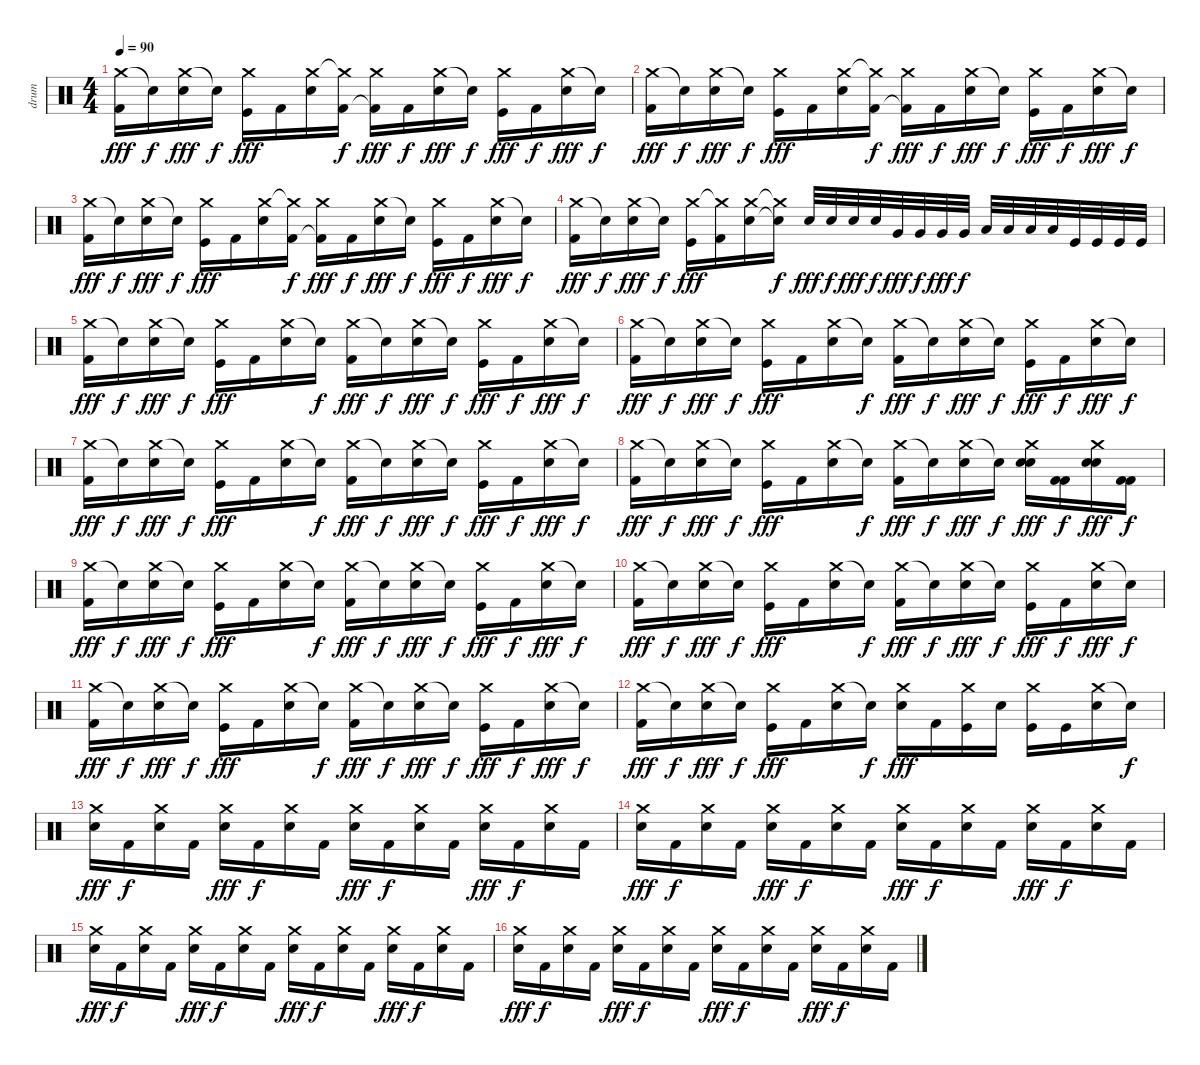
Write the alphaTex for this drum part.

\track ("drum" "drum") {instrument percussion}
\staff {score}
\articulation defaults
\ts (4 4)
\tempo 90
\clef neutral
\ks c
("Crash medium (hit)" "Kick (hit) 2").16{dy fff} "Snare (hit)"{t}.16{dy f} ("Crash medium (hit)" "Electric Snare (hit)").16{dy fff} "Snare (hit)"{t}.16{dy f} ("Crash medium (hit)" "Kick (hit)").16{dy fff} "Kick (hit) 2".16 ("Crash medium (hit)" "Electric Snare (hit)").16 ("Crash medium (hit)"{t} "Kick (hit) 2").16{dy f} ("Crash medium (hit)" "Kick (hit) 2"{t}).16{dy fff} "Kick (hit) 2".16{dy f} ("Crash medium (hit)" "Electric Snare (hit)").16{dy fff} "Snare (hit)"{t}.16{dy f} ("Crash medium (hit)" "Kick (hit)").16{dy fff} "Kick (hit) 2".16{dy f} ("Crash medium (hit)" "Electric Snare (hit)").16{dy fff} "Snare (hit)"{t}.16{dy f} |
("Crash medium (hit)" "Kick (hit) 2").16{dy fff} "Snare (hit)"{t}.16{dy f} ("Crash medium (hit)" "Electric Snare (hit)").16{dy fff} "Snare (hit)"{t}.16{dy f} ("Crash medium (hit)" "Kick (hit)").16{dy fff} "Kick (hit) 2".16 ("Crash medium (hit)" "Electric Snare (hit)").16 ("Crash medium (hit)"{t} "Kick (hit) 2").16{dy f} ("Crash medium (hit)" "Kick (hit) 2"{t}).16{dy fff} "Kick (hit) 2".16{dy f} ("Crash medium (hit)" "Electric Snare (hit)").16{dy fff} "Snare (hit)"{t}.16{dy f} ("Crash medium (hit)" "Kick (hit)").16{dy fff} "Kick (hit) 2".16{dy f} ("Crash medium (hit)" "Electric Snare (hit)").16{dy fff} "Snare (hit)"{t}.16{dy f} |
("Crash medium (hit)" "Kick (hit) 2").16{dy fff} "Snare (hit)"{t}.16{dy f} ("Crash medium (hit)" "Electric Snare (hit)").16{dy fff} "Snare (hit)"{t}.16{dy f} ("Crash medium (hit)" "Kick (hit)").16{dy fff} "Kick (hit) 2".16 ("Crash medium (hit)" "Electric Snare (hit)").16 ("Crash medium (hit)"{t} "Kick (hit) 2").16{dy f} ("Crash medium (hit)" "Kick (hit) 2"{t}).16{dy fff} "Kick (hit) 2".16{dy f} ("Crash medium (hit)" "Electric Snare (hit)").16{dy fff} "Snare (hit)"{t}.16{dy f} ("Crash medium (hit)" "Kick (hit)").16{dy fff} "Kick (hit) 2".16{dy f} ("Crash medium (hit)" "Electric Snare (hit)").16{dy fff} "Snare (hit)"{t}.16{dy f} |
("Crash medium (hit)" "Kick (hit) 2").16{dy fff} "Snare (hit)"{t}.16{dy f} ("Crash medium (hit)" "Electric Snare (hit)").16{dy fff} "Snare (hit)"{t}.16{dy f} ("Crash medium (hit)" "Kick (hit)").16{dy fff} ("Crash medium (hit)"{t} "Kick (hit) 2").16 ("Crash medium (hit)" "Electric Snare (hit)").16 ("Crash medium (hit)"{t} "Snare (hit)"{t}).16{dy f} "Electric Snare (hit)".32{dy fff} "Electric Snare (hit)".32{dy f} "Electric Snare (hit)".32{dy fff} "Electric Snare (hit)".32{dy f} "Very Low Tom (hit)".32{dy fff} "Very Low Tom (hit)".32{dy f} "Very Low Tom (hit)".32{dy fff} "Very Low Tom (hit)".32{dy f} "Low Floor Tom (hit)".32 "Low Floor Tom (hit)".32 "Low Floor Tom (hit)".32 "Low Floor Tom (hit)".32 "Kick (hit)".32 "Kick (hit)".32 "Kick (hit)".32 "Kick (hit)".32 |
("Crash medium (hit)" "Kick (hit) 2").16{dy fff} "Snare (hit)"{t}.16{dy f} ("Crash medium (hit)" "Electric Snare (hit)").16{dy fff} "Snare (hit)"{t}.16{dy f} ("Crash medium (hit)" "Kick (hit)").16{dy fff} "Kick (hit) 2".16 ("Crash medium (hit)" "Electric Snare (hit)").16 "Snare (hit)"{t}.16{dy f} ("Crash medium (hit)" "Kick (hit) 2").16{dy fff} "Snare (hit)"{t}.16{dy f} ("Crash medium (hit)" "Electric Snare (hit)").16{dy fff} "Snare (hit)"{t}.16{dy f} ("Crash medium (hit)" "Kick (hit)").16{dy fff} "Kick (hit) 2".16{dy f} ("Crash medium (hit)" "Electric Snare (hit)").16{dy fff} "Snare (hit)"{t}.16{dy f} |
("Crash medium (hit)" "Kick (hit) 2").16{dy fff} "Snare (hit)"{t}.16{dy f} ("Crash medium (hit)" "Electric Snare (hit)").16{dy fff} "Snare (hit)"{t}.16{dy f} ("Crash medium (hit)" "Kick (hit)").16{dy fff} "Kick (hit) 2".16 ("Crash medium (hit)" "Electric Snare (hit)").16 "Snare (hit)"{t}.16{dy f} ("Crash medium (hit)" "Kick (hit) 2").16{dy fff} "Snare (hit)"{t}.16{dy f} ("Crash medium (hit)" "Electric Snare (hit)").16{dy fff} "Snare (hit)"{t}.16{dy f} ("Crash medium (hit)" "Kick (hit)").16{dy fff} "Kick (hit) 2".16{dy f} ("Crash medium (hit)" "Electric Snare (hit)").16{dy fff} "Snare (hit)"{t}.16{dy f} |
("Crash medium (hit)" "Kick (hit) 2").16{dy fff} "Snare (hit)"{t}.16{dy f} ("Crash medium (hit)" "Electric Snare (hit)").16{dy fff} "Snare (hit)"{t}.16{dy f} ("Crash medium (hit)" "Kick (hit)").16{dy fff} "Kick (hit) 2".16 ("Crash medium (hit)" "Electric Snare (hit)").16 "Snare (hit)"{t}.16{dy f} ("Crash medium (hit)" "Kick (hit) 2").16{dy fff} "Snare (hit)"{t}.16{dy f} ("Crash medium (hit)" "Electric Snare (hit)").16{dy fff} "Snare (hit)"{t}.16{dy f} ("Crash medium (hit)" "Kick (hit)").16{dy fff} "Kick (hit) 2".16{dy f} ("Crash medium (hit)" "Electric Snare (hit)").16{dy fff} "Snare (hit)"{t}.16{dy f} |
("Crash medium (hit)" "Kick (hit) 2").16{dy fff} "Snare (hit)"{t}.16{dy f} ("Crash medium (hit)" "Electric Snare (hit)").16{dy fff} "Snare (hit)"{t}.16{dy f} ("Crash medium (hit)" "Kick (hit)").16{dy fff} "Kick (hit) 2".16 ("Crash medium (hit)" "Electric Snare (hit)").16 "Snare (hit)"{t}.16{dy f} ("Crash medium (hit)" "Kick (hit) 2").16{dy fff} "Snare (hit)"{t}.16{dy f} ("Crash medium (hit)" "Electric Snare (hit)").16{dy fff} "Snare (hit)"{t}.16{dy f} ("Crash medium (hit)" "Electric Snare (hit)" "Electric Snare (hit)").16{dy fff} ("Kick (hit) 2" "Kick (hit) 2").16{dy f} ("Crash medium (hit)" "Electric Snare (hit)" "Electric Snare (hit)").16{dy fff} ("Kick (hit) 2" "Kick (hit) 2").16{dy f} |
("Crash medium (hit)" "Kick (hit) 2").16{dy fff} "Snare (hit)"{t}.16{dy f} ("Crash medium (hit)" "Electric Snare (hit)").16{dy fff} "Snare (hit)"{t}.16{dy f} ("Crash medium (hit)" "Kick (hit)").16{dy fff} "Kick (hit) 2".16 ("Crash medium (hit)" "Electric Snare (hit)").16 "Snare (hit)"{t}.16{dy f} ("Crash medium (hit)" "Kick (hit) 2").16{dy fff} "Snare (hit)"{t}.16{dy f} ("Crash medium (hit)" "Electric Snare (hit)").16{dy fff} "Snare (hit)"{t}.16{dy f} ("Crash medium (hit)" "Kick (hit)").16{dy fff} "Kick (hit) 2".16{dy f} ("Crash medium (hit)" "Electric Snare (hit)").16{dy fff} "Snare (hit)"{t}.16{dy f} |
("Crash medium (hit)" "Kick (hit) 2").16{dy fff} "Snare (hit)"{t}.16{dy f} ("Crash medium (hit)" "Electric Snare (hit)").16{dy fff} "Snare (hit)"{t}.16{dy f} ("Crash medium (hit)" "Kick (hit)").16{dy fff} "Kick (hit) 2".16 ("Crash medium (hit)" "Electric Snare (hit)").16 "Snare (hit)"{t}.16{dy f} ("Crash medium (hit)" "Kick (hit) 2").16{dy fff} "Snare (hit)"{t}.16{dy f} ("Crash medium (hit)" "Electric Snare (hit)").16{dy fff} "Snare (hit)"{t}.16{dy f} ("Crash medium (hit)" "Kick (hit)").16{dy fff} "Kick (hit) 2".16{dy f} ("Crash medium (hit)" "Electric Snare (hit)").16{dy fff} "Snare (hit)"{t}.16{dy f} |
("Crash medium (hit)" "Kick (hit) 2").16{dy fff} "Snare (hit)"{t}.16{dy f} ("Crash medium (hit)" "Electric Snare (hit)").16{dy fff} "Snare (hit)"{t}.16{dy f} ("Crash medium (hit)" "Kick (hit)").16{dy fff} "Kick (hit) 2".16 ("Crash medium (hit)" "Electric Snare (hit)").16 "Snare (hit)"{t}.16{dy f} ("Crash medium (hit)" "Kick (hit) 2").16{dy fff} "Snare (hit)"{t}.16{dy f} ("Crash medium (hit)" "Electric Snare (hit)").16{dy fff} "Snare (hit)"{t}.16{dy f} ("Crash medium (hit)" "Kick (hit)").16{dy fff} "Kick (hit) 2".16{dy f} ("Crash medium (hit)" "Electric Snare (hit)").16{dy fff} "Snare (hit)"{t}.16{dy f} |
("Crash medium (hit)" "Kick (hit) 2").16{dy fff} "Snare (hit)"{t}.16{dy f} ("Crash medium (hit)" "Electric Snare (hit)").16{dy fff} "Snare (hit)"{t}.16{dy f} ("Crash medium (hit)" "Kick (hit)").16{dy fff} "Kick (hit) 2".16 ("Crash medium (hit)" "Electric Snare (hit)").16 "Snare (hit)"{t}.16{dy f} ("Crash medium (hit)" "Electric Snare (hit)").16{dy fff} "Kick (hit) 2".16 ("Crash medium (hit)" "Kick (hit)").16 "Electric Snare (hit)".16 ("Crash medium (hit)" "Kick (hit)").16 "Kick (hit)".16 ("Crash medium (hit)" "Electric Snare (hit)").16 "Snare (hit)"{t}.16{dy f} |
("Crash medium (hit)" "Electric Snare (hit)").16{dy fff} "Kick (hit) 2".16{dy f} ("Crash medium (hit)" "Electric Snare (hit)").16 "Kick (hit) 2".16 ("Crash medium (hit)" "Electric Snare (hit)").16{dy fff} "Kick (hit) 2".16{dy f} ("Crash medium (hit)" "Electric Snare (hit)").16 "Kick (hit) 2".16 ("Crash medium (hit)" "Electric Snare (hit)").16{dy fff} "Kick (hit) 2".16{dy f} ("Crash medium (hit)" "Electric Snare (hit)").16 "Kick (hit) 2".16 ("Crash medium (hit)" "Electric Snare (hit)").16{dy fff} "Kick (hit) 2".16{dy f} ("Crash medium (hit)" "Electric Snare (hit)").16 "Kick (hit) 2".16 |
("Crash medium (hit)" "Electric Snare (hit)").16{dy fff} "Kick (hit) 2".16{dy f} ("Crash medium (hit)" "Electric Snare (hit)").16 "Kick (hit) 2".16 ("Crash medium (hit)" "Electric Snare (hit)").16{dy fff} "Kick (hit) 2".16{dy f} ("Crash medium (hit)" "Electric Snare (hit)").16 "Kick (hit) 2".16 ("Crash medium (hit)" "Electric Snare (hit)").16{dy fff} "Kick (hit) 2".16{dy f} ("Crash medium (hit)" "Electric Snare (hit)").16 "Kick (hit) 2".16 ("Crash medium (hit)" "Electric Snare (hit)").16{dy fff} "Kick (hit) 2".16{dy f} ("Crash medium (hit)" "Electric Snare (hit)").16 "Kick (hit) 2".16 |
("Crash medium (hit)" "Electric Snare (hit)").16{dy fff} "Kick (hit) 2".16{dy f} ("Crash medium (hit)" "Electric Snare (hit)").16 "Kick (hit) 2".16 ("Crash medium (hit)" "Electric Snare (hit)").16{dy fff} "Kick (hit) 2".16{dy f} ("Crash medium (hit)" "Electric Snare (hit)").16 "Kick (hit) 2".16 ("Crash medium (hit)" "Electric Snare (hit)").16{dy fff} "Kick (hit) 2".16{dy f} ("Crash medium (hit)" "Electric Snare (hit)").16 "Kick (hit) 2".16 ("Crash medium (hit)" "Electric Snare (hit)").16{dy fff} "Kick (hit) 2".16{dy f} ("Crash medium (hit)" "Electric Snare (hit)").16 "Kick (hit) 2".16 |
("Crash medium (hit)" "Electric Snare (hit)").16{dy fff} "Kick (hit) 2".16{dy f} ("Crash medium (hit)" "Electric Snare (hit)").16 "Kick (hit) 2".16 ("Crash medium (hit)" "Electric Snare (hit)").16{dy fff} "Kick (hit) 2".16{dy f} ("Crash medium (hit)" "Electric Snare (hit)").16 "Kick (hit) 2".16 ("Crash medium (hit)" "Electric Snare (hit)").16{dy fff} "Kick (hit) 2".16{dy f} ("Crash medium (hit)" "Electric Snare (hit)").16 "Kick (hit) 2".16 ("Crash medium (hit)" "Electric Snare (hit)").16{dy fff} "Kick (hit) 2".16{dy f} ("Crash medium (hit)" "Electric Snare (hit)").16 "Kick (hit) 2".16
